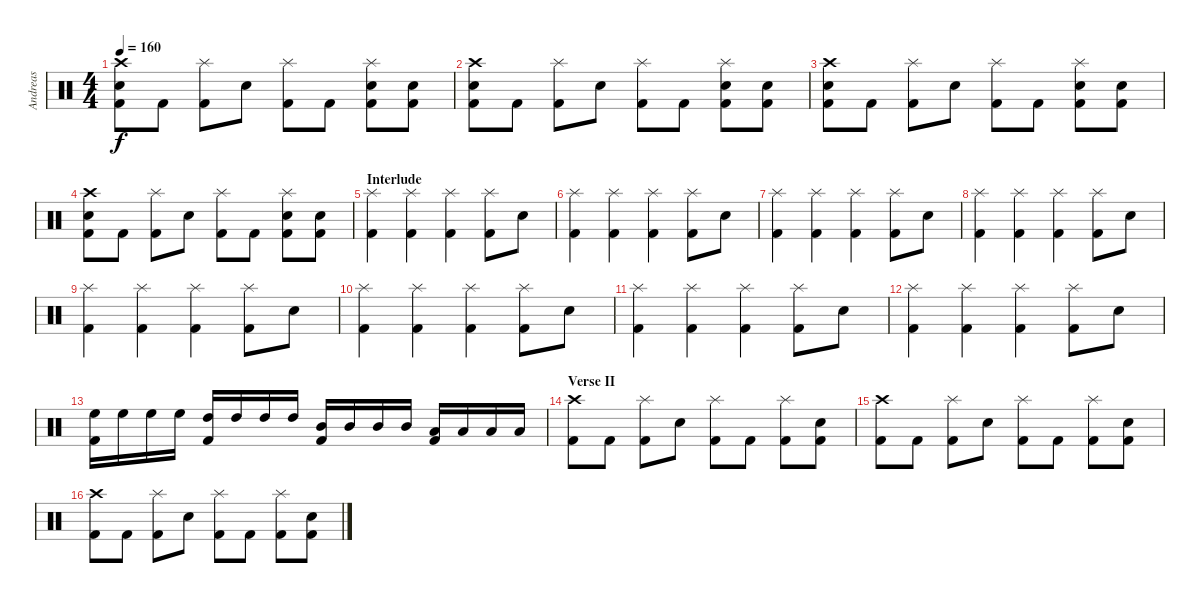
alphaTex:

\track ("Andreas" "Andreas") {instrument percussion}
\staff {score}
\articulation defaults
\ts (4 4)
\tempo 160
\clef neutral
\ks c
("Crash high (hit)" "Snare (hit) 2" "Kick (hit) 2").8{dy f} "Kick (hit) 2".8 ("Splash (hit)" "Kick (hit) 2").8 "Snare (hit) 2".8 ("Splash (hit)" "Kick (hit) 2").8 "Kick (hit) 2".8 ("Splash (hit)" "Snare (hit) 2" "Kick (hit) 2").8 ("Snare (hit) 2" "Kick (hit) 2").8 |
("Crash high (hit)" "Snare (hit) 2" "Kick (hit) 2").8 "Kick (hit) 2".8 ("Splash (hit)" "Kick (hit) 2").8 "Snare (hit) 2".8 ("Splash (hit)" "Kick (hit) 2").8 "Kick (hit) 2".8 ("Splash (hit)" "Snare (hit) 2" "Kick (hit) 2").8 ("Snare (hit) 2" "Kick (hit) 2").8 |
("Crash high (hit)" "Snare (hit) 2" "Kick (hit) 2").8 "Kick (hit) 2".8 ("Splash (hit)" "Kick (hit) 2").8 "Snare (hit) 2".8 ("Splash (hit)" "Kick (hit) 2").8 "Kick (hit) 2".8 ("Splash (hit)" "Snare (hit) 2" "Kick (hit) 2").8 ("Snare (hit) 2" "Kick (hit) 2").8 |
("Crash high (hit)" "Snare (hit) 2" "Kick (hit) 2").8 "Kick (hit) 2".8 ("Splash (hit)" "Kick (hit) 2").8 "Snare (hit) 2".8 ("Splash (hit)" "Kick (hit) 2").8 "Kick (hit) 2".8 ("Splash (hit)" "Snare (hit) 2" "Kick (hit) 2").8 ("Snare (hit) 2" "Kick (hit) 2").8 |
\section ("" "Interlude")
("Splash (hit)" "Kick (hit) 2").4 ("Splash (hit)" "Kick (hit) 2").4 ("Splash (hit)" "Kick (hit) 2").4 ("Splash (hit)" "Kick (hit) 2").8 "Snare (hit) 2".8 |
("Splash (hit)" "Kick (hit) 2").4 ("Splash (hit)" "Kick (hit) 2").4 ("Splash (hit)" "Kick (hit) 2").4 ("Splash (hit)" "Kick (hit) 2").8 "Snare (hit) 2".8 |
("Splash (hit)" "Kick (hit) 2").4 ("Splash (hit)" "Kick (hit) 2").4 ("Splash (hit)" "Kick (hit) 2").4 ("Splash (hit)" "Kick (hit) 2").8 "Snare (hit) 2".8 |
("Splash (hit)" "Kick (hit) 2").4 ("Splash (hit)" "Kick (hit) 2").4 ("Splash (hit)" "Kick (hit) 2").4 ("Splash (hit)" "Kick (hit) 2").8 "Snare (hit) 2".8 |
("Splash (hit)" "Kick (hit) 2").4 ("Splash (hit)" "Kick (hit) 2").4 ("Splash (hit)" "Kick (hit) 2").4 ("Splash (hit)" "Kick (hit) 2").8 "Snare (hit) 2".8 |
("Splash (hit)" "Kick (hit) 2").4 ("Splash (hit)" "Kick (hit) 2").4 ("Splash (hit)" "Kick (hit) 2").4 ("Splash (hit)" "Kick (hit) 2").8 "Snare (hit) 2".8 |
("Splash (hit)" "Kick (hit) 2").4 ("Splash (hit)" "Kick (hit) 2").4 ("Splash (hit)" "Kick (hit) 2").4 ("Splash (hit)" "Kick (hit) 2").8 "Snare (hit) 2".8 |
("Splash (hit)" "Kick (hit) 2").4 ("Splash (hit)" "Kick (hit) 2").4 ("Splash (hit)" "Kick (hit) 2").4 ("Splash (hit)" "Kick (hit) 2").8 "Snare (hit) 2".8 |
("High Floor Tom (hit)" "Kick (hit) 2").16 "High Floor Tom (hit)".16 "High Floor Tom (hit)".16 "High Floor Tom (hit)".16 ("High Tom (hit)" "Kick (hit) 2").16 "High Tom (hit)".16 "High Tom (hit)".16 "High Tom (hit)".16 ("Mid Tom (hit)" "Kick (hit) 2").16 "Mid Tom (hit)".16 "Mid Tom (hit)".16 "Mid Tom (hit)".16 ("Low Tom (hit)" "Kick (hit) 2").16 "Low Tom (hit)".16 "Low Tom (hit)".16 "Low Tom (hit)".16 |
\section ("" "Verse II")
("Crash high (hit)" "Kick (hit) 2").8 "Kick (hit) 2".8 ("Splash (hit)" "Kick (hit) 2").8 "Snare (hit) 2".8 ("Splash (hit)" "Kick (hit) 2").8 "Kick (hit) 2".8 ("Splash (hit)" "Kick (hit) 2").8 ("Snare (hit) 2" "Kick (hit) 2").8 |
("Crash high (hit)" "Kick (hit) 2").8 "Kick (hit) 2".8 ("Splash (hit)" "Kick (hit) 2").8 "Snare (hit) 2".8 ("Splash (hit)" "Kick (hit) 2").8 "Kick (hit) 2".8 ("Splash (hit)" "Kick (hit) 2").8 ("Snare (hit) 2" "Kick (hit) 2").8 |
("Crash high (hit)" "Kick (hit) 2").8 "Kick (hit) 2".8 ("Splash (hit)" "Kick (hit) 2").8 "Snare (hit) 2".8 ("Splash (hit)" "Kick (hit) 2").8 "Kick (hit) 2".8 ("Splash (hit)" "Kick (hit) 2").8 ("Snare (hit) 2" "Kick (hit) 2").8
